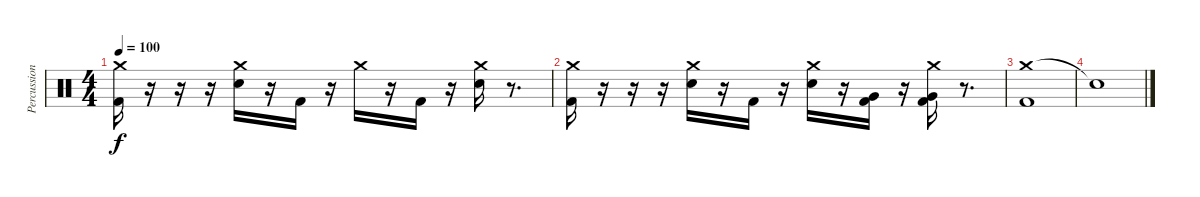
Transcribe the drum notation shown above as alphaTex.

\track ("Percussion (Chad Smith)" "Percussion") {instrument percussion}
\staff {score}
\articulation defaults
\ts (4 4)
\tempo 100
\clef neutral
\ks c
("Crash medium (hit)" "Kick (hit) 2").16{dy f} r.16 r.16 r.16 ("Crash medium (hit)" "Electric Snare (hit)").16 r.16 "Kick (hit) 2".16 r.16 "Crash medium (hit)".16 r.16 "Kick (hit) 2".16 r.16 ("Crash medium (hit)" "Electric Snare (hit)").16 r.8{d} |
("Crash medium (hit)" "Kick (hit) 2").16 r.16 r.16 r.16 ("Crash medium (hit)" "Electric Snare (hit)").16 r.16 "Kick (hit) 2".16 r.16 ("Crash medium (hit)" "Electric Snare (hit)").16 r.16 ("Very Low Tom (hit)" "Kick (hit) 2").16 r.16 ("Crash medium (hit)" "Very Low Tom (hit)" "Kick (hit) 2").16 r.8{d} |
("Crash medium (hit)" "Kick (hit) 2").1 |
"Snare (hit)"{t}.1
